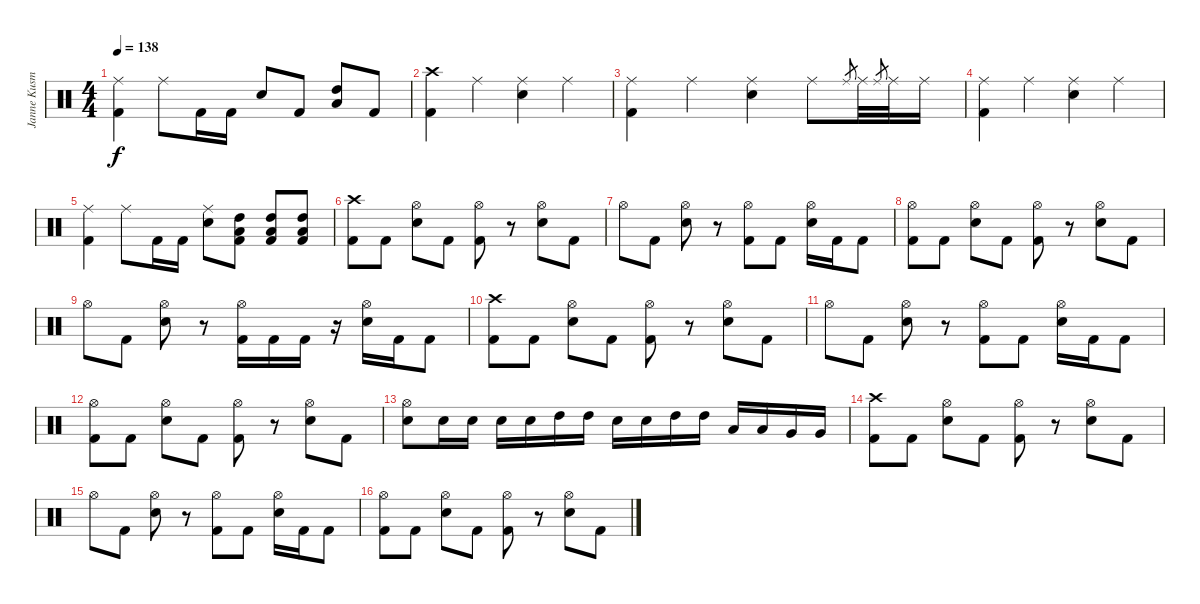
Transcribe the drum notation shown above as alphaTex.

\track ("Janne Kusmin" "Janne Kusm") {instrument percussion}
\staff {score}
\articulation defaults
\ts (4 4)
\tempo 138
\clef neutral
\ks c
("Ride (middle)" "Kick (hit) 2").4{dy f} "Ride (middle)".8 "Kick (hit) 2".16 "Kick (hit) 2".16 "Electric Snare (hit)".8 "Kick (hit) 2".8 ("High Tom (hit)" "Low Floor Tom (hit)").8 "Kick (hit) 2".8 |
("Crash high (hit)" "Kick (hit) 2").4 "Ride (middle)".4 ("Ride (middle)" "Electric Snare (hit)").4 "Ride (middle)".4 |
("Ride (middle)" "Kick (hit) 2").4 "Ride (middle)".4 ("Ride (middle)" "Electric Snare (hit)").4 "Ride (middle)".8 "Ride (middle)".8{gr} "Ride (middle)".32 "Ride (middle)".8{gr} "Ride (middle)".32 "Ride (middle)".16 |
("Ride (middle)" "Kick (hit) 2").4 "Ride (middle)".4 ("Ride (middle)" "Electric Snare (hit)").4 "Ride (middle)".4 |
("Ride (middle)" "Kick (hit) 2").4 "Ride (middle)".8 "Kick (hit) 2".16 "Kick (hit) 2".16 ("Ride (middle)" "Electric Snare (hit)").8 ("High Tom (hit)" "Low Floor Tom (hit)" "Kick (hit) 2").8 ("High Tom (hit)" "Low Floor Tom (hit)" "Kick (hit) 2").8 ("High Tom (hit)" "Low Floor Tom (hit)" "Kick (hit) 2").8 |
("Crash high (hit)" "Kick (hit) 2").8 "Kick (hit) 2".8 ("Hi-Hat (open)" "Electric Snare (hit)").8 "Kick (hit) 2".8 ("Hi-Hat (open)" "Kick (hit) 2").8 r.8 ("Hi-Hat (open)" "Electric Snare (hit)").8 "Kick (hit) 2".8 |
"Hi-Hat (open)".8 "Kick (hit) 2".8 ("Hi-Hat (open)" "Electric Snare (hit)").8 r.8 ("Hi-Hat (open)" "Kick (hit) 2").8 "Kick (hit) 2".8 ("Hi-Hat (open)" "Electric Snare (hit)").16 "Kick (hit) 2".16 "Kick (hit) 2".8 |
("Hi-Hat (open)" "Kick (hit) 2").8 "Kick (hit) 2".8 ("Hi-Hat (open)" "Electric Snare (hit)").8 "Kick (hit) 2".8 ("Hi-Hat (open)" "Kick (hit) 2").8 r.8 ("Hi-Hat (open)" "Electric Snare (hit)").8 "Kick (hit) 2".8 |
"Hi-Hat (open)".8 "Kick (hit) 2".8 ("Hi-Hat (open)" "Electric Snare (hit)").8 r.8 ("Hi-Hat (open)" "Kick (hit) 2").16 "Kick (hit) 2".16 "Kick (hit) 2".16 r.16 ("Hi-Hat (open)" "Electric Snare (hit)").16 "Kick (hit) 2".16 "Kick (hit) 2".8 |
("Crash high (hit)" "Kick (hit) 2").8 "Kick (hit) 2".8 ("Hi-Hat (open)" "Electric Snare (hit)").8 "Kick (hit) 2".8 ("Hi-Hat (open)" "Kick (hit) 2").8 r.8 ("Hi-Hat (open)" "Electric Snare (hit)").8 "Kick (hit) 2".8 |
"Hi-Hat (open)".8 "Kick (hit) 2".8 ("Hi-Hat (open)" "Electric Snare (hit)").8 r.8 ("Hi-Hat (open)" "Kick (hit) 2").8 "Kick (hit) 2".8 ("Hi-Hat (open)" "Electric Snare (hit)").16 "Kick (hit) 2".16 "Kick (hit) 2".8 |
("Hi-Hat (open)" "Kick (hit) 2").8 "Kick (hit) 2".8 ("Hi-Hat (open)" "Electric Snare (hit)").8 "Kick (hit) 2".8 ("Hi-Hat (open)" "Kick (hit) 2").8 r.8 ("Hi-Hat (open)" "Electric Snare (hit)").8 "Kick (hit) 2".8 |
("Hi-Hat (open)" "Electric Snare (hit)").8 "Electric Snare (hit)".16 "Electric Snare (hit)".16 "Electric Snare (hit)".16 "Electric Snare (hit)".16 "High Tom (hit)".16 "High Tom (hit)".16 "Electric Snare (hit)".16 "Electric Snare (hit)".16 "High Tom (hit)".16 "High Tom (hit)".16 "Low Tom (hit)".16 "Low Tom (hit)".16 "Very Low Tom (hit)".16 "Very Low Tom (hit)".16 |
("Crash high (hit)" "Kick (hit) 2").8 "Kick (hit) 2".8 ("Hi-Hat (open)" "Electric Snare (hit)").8 "Kick (hit) 2".8 ("Hi-Hat (open)" "Kick (hit) 2").8 r.8 ("Hi-Hat (open)" "Electric Snare (hit)").8 "Kick (hit) 2".8 |
"Hi-Hat (open)".8 "Kick (hit) 2".8 ("Hi-Hat (open)" "Electric Snare (hit)").8 r.8 ("Hi-Hat (open)" "Kick (hit) 2").8 "Kick (hit) 2".8 ("Hi-Hat (open)" "Electric Snare (hit)").16 "Kick (hit) 2".16 "Kick (hit) 2".8 |
("Hi-Hat (open)" "Kick (hit) 2").8 "Kick (hit) 2".8 ("Hi-Hat (open)" "Electric Snare (hit)").8 "Kick (hit) 2".8 ("Hi-Hat (open)" "Kick (hit) 2").8 r.8 ("Hi-Hat (open)" "Electric Snare (hit)").8 "Kick (hit) 2".8
